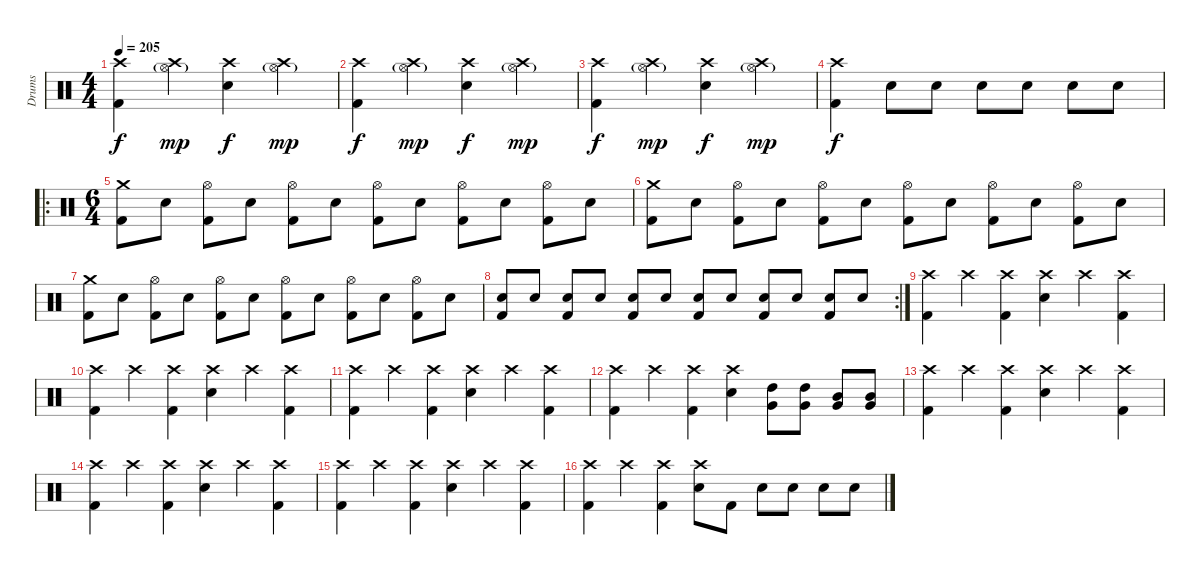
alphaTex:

\track ("Drums" "Drums") {instrument percussion}
\staff {score}
\articulation defaults
\ts (4 4)
\tempo 205
\clef neutral
\ks c
("Crash high (hit)" "Kick (hit) 2").4{dy f} ("Crash high (hit)" "Hi-Hat (open)"{g}).4{dy mp} ("Crash high (hit)" "Electric Snare (hit)").4{dy f} ("Crash high (hit)" "Hi-Hat (open)"{g}).4{dy mp} |
("Crash high (hit)" "Kick (hit) 2").4{dy f} ("Crash high (hit)" "Hi-Hat (open)"{g}).4{dy mp} ("Crash high (hit)" "Electric Snare (hit)").4{dy f} ("Crash high (hit)" "Hi-Hat (open)"{g}).4{dy mp} |
("Crash high (hit)" "Kick (hit) 2").4{dy f} ("Crash high (hit)" "Hi-Hat (open)"{g}).4{dy mp} ("Crash high (hit)" "Electric Snare (hit)").4{dy f} ("Crash high (hit)" "Hi-Hat (open)"{g}).4{dy mp} |
("Crash high (hit)" "Kick (hit) 2").4{dy f} "Electric Snare (hit)".8 "Electric Snare (hit)".8 "Electric Snare (hit)".8 "Electric Snare (hit)".8 "Electric Snare (hit)".8 "Electric Snare (hit)".8 |
\ro
\ts (6 4)
("Crash medium (hit)" "Kick (hit) 2").8 "Electric Snare (hit)".8 ("Hi-Hat (open)" "Kick (hit) 2").8 "Electric Snare (hit)".8 ("Hi-Hat (open)" "Kick (hit) 2").8 "Electric Snare (hit)".8 ("Hi-Hat (open)" "Kick (hit) 2").8 "Electric Snare (hit)".8 ("Hi-Hat (open)" "Kick (hit) 2").8 "Electric Snare (hit)".8 ("Hi-Hat (open)" "Kick (hit) 2").8 "Electric Snare (hit)".8 |
("Crash medium (hit)" "Kick (hit) 2").8 "Electric Snare (hit)".8 ("Hi-Hat (open)" "Kick (hit) 2").8 "Electric Snare (hit)".8 ("Hi-Hat (open)" "Kick (hit) 2").8 "Electric Snare (hit)".8 ("Hi-Hat (open)" "Kick (hit) 2").8 "Electric Snare (hit)".8 ("Hi-Hat (open)" "Kick (hit) 2").8 "Electric Snare (hit)".8 ("Hi-Hat (open)" "Kick (hit) 2").8 "Electric Snare (hit)".8 |
("Crash medium (hit)" "Kick (hit) 2").8 "Electric Snare (hit)".8 ("Hi-Hat (open)" "Kick (hit) 2").8 "Electric Snare (hit)".8 ("Hi-Hat (open)" "Kick (hit) 2").8 "Electric Snare (hit)".8 ("Hi-Hat (open)" "Kick (hit) 2").8 "Electric Snare (hit)".8 ("Hi-Hat (open)" "Kick (hit) 2").8 "Electric Snare (hit)".8 ("Hi-Hat (open)" "Kick (hit) 2").8 "Electric Snare (hit)".8 |
\rc 2
("Electric Snare (hit)" "Kick (hit) 2").8 "Electric Snare (hit)".8 ("Electric Snare (hit)" "Kick (hit) 2").8 "Electric Snare (hit)".8 ("Electric Snare (hit)" "Kick (hit) 2").8 "Electric Snare (hit)".8 ("Electric Snare (hit)" "Kick (hit) 2").8 "Electric Snare (hit)".8 ("Electric Snare (hit)" "Kick (hit) 2").8 "Electric Snare (hit)".8 ("Electric Snare (hit)" "Kick (hit) 2").8 "Electric Snare (hit)".8 |
("Crash high (hit)" "Kick (hit) 2").4 "Crash high (hit)".4 ("Crash high (hit)" "Kick (hit) 2").4 ("Crash high (hit)" "Electric Snare (hit)").4 "Crash high (hit)".4 ("Crash high (hit)" "Kick (hit) 2").4 |
("Crash high (hit)" "Kick (hit) 2").4 "Crash high (hit)".4 ("Crash high (hit)" "Kick (hit) 2").4 ("Crash high (hit)" "Electric Snare (hit)").4 "Crash high (hit)".4 ("Crash high (hit)" "Kick (hit) 2").4 |
("Crash high (hit)" "Kick (hit) 2").4 "Crash high (hit)".4 ("Crash high (hit)" "Kick (hit) 2").4 ("Crash high (hit)" "Electric Snare (hit)").4 "Crash high (hit)".4 ("Crash high (hit)" "Kick (hit) 2").4 |
("Crash high (hit)" "Kick (hit) 2").4 "Crash high (hit)".4 ("Crash high (hit)" "Kick (hit) 2").4 ("Crash high (hit)" "Electric Snare (hit)").4 ("Very Low Tom (hit)" "High Tom (hit)").8 ("Very Low Tom (hit)" "High Tom (hit)").8 ("Very Low Tom (hit)" "Mid Tom (hit)").8 ("Very Low Tom (hit)" "Mid Tom (hit)").8 |
("Crash high (hit)" "Kick (hit) 2").4 "Crash high (hit)".4 ("Crash high (hit)" "Kick (hit) 2").4 ("Crash high (hit)" "Electric Snare (hit)").4 "Crash high (hit)".4 ("Crash high (hit)" "Kick (hit) 2").4 |
("Crash high (hit)" "Kick (hit) 2").4 "Crash high (hit)".4 ("Crash high (hit)" "Kick (hit) 2").4 ("Crash high (hit)" "Electric Snare (hit)").4 "Crash high (hit)".4 ("Crash high (hit)" "Kick (hit) 2").4 |
("Crash high (hit)" "Kick (hit) 2").4 "Crash high (hit)".4 ("Crash high (hit)" "Kick (hit) 2").4 ("Crash high (hit)" "Electric Snare (hit)").4 "Crash high (hit)".4 ("Crash high (hit)" "Kick (hit) 2").4 |
("Crash high (hit)" "Kick (hit) 2").4 "Crash high (hit)".4 ("Crash high (hit)" "Kick (hit) 2").4 ("Crash high (hit)" "Electric Snare (hit)").8 "Kick (hit) 2".8 "Electric Snare (hit)".8 "Electric Snare (hit)".8 "Electric Snare (hit)".8 "Electric Snare (hit)".8
